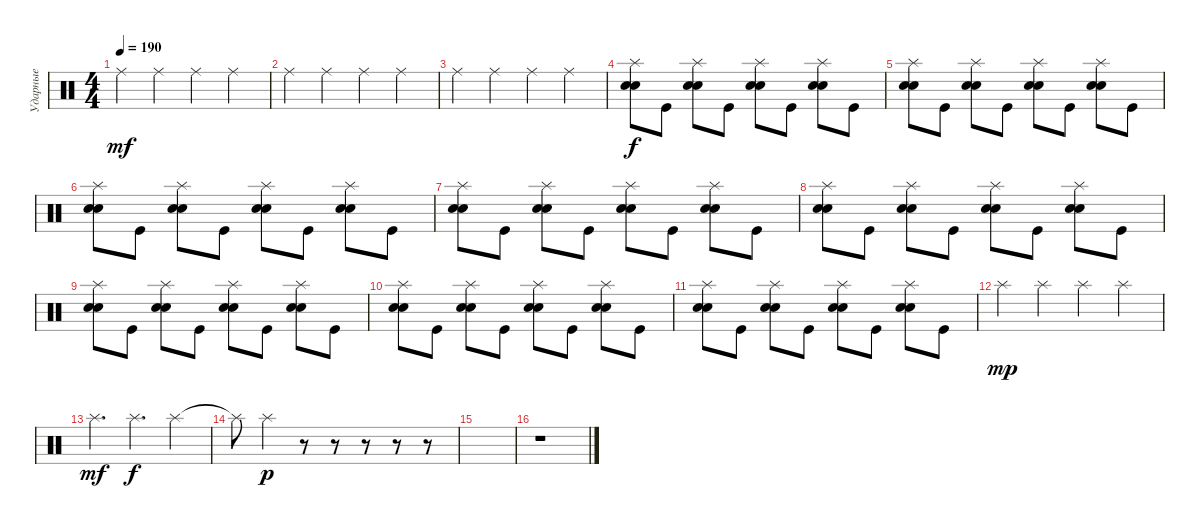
\track ("Ударные" "Ударные") {instrument percussion}
\staff {score}
\articulation defaults
\ts (4 4)
\tempo 190
\clef neutral
\ks c "Ride (middle)".4{dy mf} "Ride (middle)".4 "Ride (middle)".4 "Ride (middle)".4
|
"Ride (middle)".4 "Ride (middle)".4 "Ride (middle)".4 "Ride (middle)".4 |
"Ride (middle)".4 "Ride (middle)".4 "Ride (middle)".4 "Ride (middle)".4 |
("Splash (hit)" "Electric Snare (hit)" "Snare (hit) 2").8{dy f} "Kick (hit)".8 ("Splash (hit)" "Electric Snare (hit)" "Snare (hit) 2").8 "Kick (hit)".8 ("Splash (hit)" "Electric Snare (hit)" "Snare (hit) 2").8 "Kick (hit)".8 ("Splash (hit)" "Electric Snare (hit)" "Snare (hit) 2").8 "Kick (hit)".8 |
("Splash (hit)" "Electric Snare (hit)" "Snare (hit) 2").8 "Kick (hit)".8 ("Splash (hit)" "Electric Snare (hit)" "Snare (hit) 2").8 "Kick (hit)".8 ("Splash (hit)" "Electric Snare (hit)" "Snare (hit) 2").8 "Kick (hit)".8 ("Splash (hit)" "Electric Snare (hit)" "Snare (hit) 2").8 "Kick (hit)".8 |
("Splash (hit)" "Electric Snare (hit)" "Snare (hit) 2").8 "Kick (hit)".8 ("Splash (hit)" "Electric Snare (hit)" "Snare (hit) 2").8 "Kick (hit)".8 ("Splash (hit)" "Electric Snare (hit)" "Snare (hit) 2").8 "Kick (hit)".8 ("Splash (hit)" "Electric Snare (hit)" "Snare (hit) 2").8 "Kick (hit)".8 |
("Splash (hit)" "Electric Snare (hit)" "Snare (hit) 2").8 "Kick (hit)".8 ("Splash (hit)" "Electric Snare (hit)" "Snare (hit) 2").8 "Kick (hit)".8 ("Splash (hit)" "Electric Snare (hit)" "Snare (hit) 2").8 "Kick (hit)".8 ("Splash (hit)" "Electric Snare (hit)" "Snare (hit) 2").8 "Kick (hit)".8 |
("Splash (hit)" "Electric Snare (hit)" "Snare (hit) 2").8 "Kick (hit)".8 ("Splash (hit)" "Electric Snare (hit)" "Snare (hit) 2").8 "Kick (hit)".8 ("Splash (hit)" "Electric Snare (hit)" "Snare (hit) 2").8 "Kick (hit)".8 ("Splash (hit)" "Electric Snare (hit)" "Snare (hit) 2").8 "Kick (hit)".8 |
("Splash (hit)" "Electric Snare (hit)" "Snare (hit) 2").8 "Kick (hit)".8 ("Splash (hit)" "Electric Snare (hit)" "Snare (hit) 2").8 "Kick (hit)".8 ("Splash (hit)" "Electric Snare (hit)" "Snare (hit) 2").8 "Kick (hit)".8 ("Splash (hit)" "Electric Snare (hit)" "Snare (hit) 2").8 "Kick (hit)".8 |
("Splash (hit)" "Electric Snare (hit)" "Snare (hit) 2").8 "Kick (hit)".8 ("Splash (hit)" "Electric Snare (hit)" "Snare (hit) 2").8 "Kick (hit)".8 ("Splash (hit)" "Electric Snare (hit)" "Snare (hit) 2").8 "Kick (hit)".8 ("Splash (hit)" "Electric Snare (hit)" "Snare (hit) 2").8 "Kick (hit)".8 |
("Splash (hit)" "Electric Snare (hit)" "Snare (hit) 2").8 "Kick (hit)".8 ("Splash (hit)" "Electric Snare (hit)" "Snare (hit) 2").8 "Kick (hit)".8 ("Splash (hit)" "Electric Snare (hit)" "Snare (hit) 2").8 "Kick (hit)".8 ("Splash (hit)" "Electric Snare (hit)" "Snare (hit) 2").8 "Kick (hit)".8 |
"Splash (hit)".4{dy mp} "Splash (hit)".4 "Splash (hit)".4 "Splash (hit)".4 |
"Splash (hit)".4{d dy mf} "Splash (hit)".4{d dy f} "Splash (hit)".4 |
"Splash (hit)"{t}.8 "Splash (hit)".4{dy p} r.8 r.8 r.8 r.8 r.8 |
|
r.1
